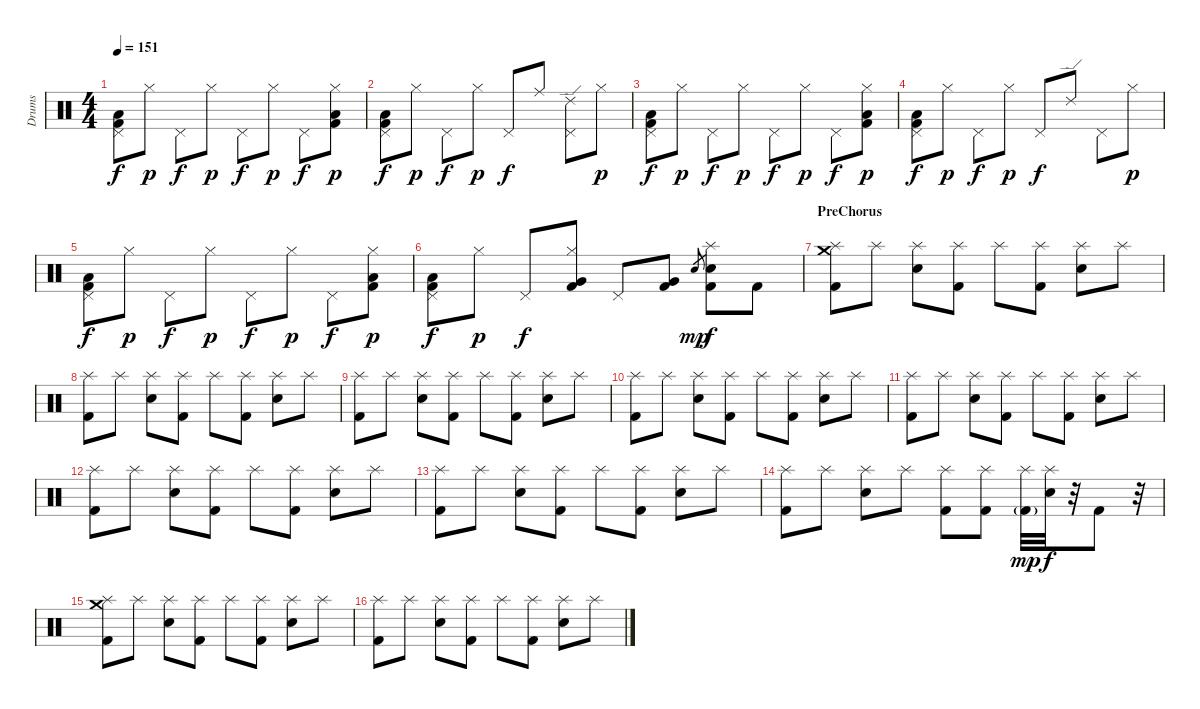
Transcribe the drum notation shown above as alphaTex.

\track ("Drums" "Drums") {instrument percussion}
\staff {score}
\articulation defaults
\ts (4 4)
\tempo 151
\clef neutral
\ks c
("Kick (hit) 2" "Low Floor Tom (hit)" "Pedal Hi-Hat (hit)").8{dy f volume 16} "Hi-Hat (closed)".8{dy p} "Pedal Hi-Hat (hit)".8{dy f} "Hi-Hat (closed)".8{dy p} "Pedal Hi-Hat (hit)".8{dy f} "Hi-Hat (closed)".8{dy p} "Pedal Hi-Hat (hit)".8{dy f} ("Kick (hit) 2" "Low Floor Tom (hit)" "Hi-Hat (closed)").8{dy p volume 16} |
("Kick (hit) 2" "Low Floor Tom (hit)" "Pedal Hi-Hat (hit)").8{dy f volume 16} "Hi-Hat (closed)".8{dy p} "Pedal Hi-Hat (hit)".8{dy f} "Hi-Hat (closed)".8{dy p} "Pedal Hi-Hat (hit)".8{dy f} "Ride (middle)".8 ("Ride (edge) 2" "Pedal Hi-Hat (hit)").8 "Hi-Hat (closed)".8{dy p} |
("Kick (hit) 2" "Low Floor Tom (hit)" "Pedal Hi-Hat (hit)").8{dy f volume 16} "Hi-Hat (closed)".8{dy p} "Pedal Hi-Hat (hit)".8{dy f} "Hi-Hat (closed)".8{dy p} "Pedal Hi-Hat (hit)".8{dy f} "Hi-Hat (closed)".8{dy p} "Pedal Hi-Hat (hit)".8{dy f} ("Kick (hit) 2" "Low Floor Tom (hit)" "Hi-Hat (closed)").8{dy p volume 16} |
("Kick (hit) 2" "Low Floor Tom (hit)" "Pedal Hi-Hat (hit)").8{dy f volume 16} "Hi-Hat (closed)".8{dy p} "Pedal Hi-Hat (hit)".8{dy f} "Hi-Hat (closed)".8{dy p} "Pedal Hi-Hat (hit)".8{dy f} "Ride (edge) 2".8 "Pedal Hi-Hat (hit)".8 "Hi-Hat (closed)".8{dy p} |
("Kick (hit) 2" "Low Floor Tom (hit)" "Pedal Hi-Hat (hit)").8{dy f volume 16} "Hi-Hat (closed)".8{dy p} "Pedal Hi-Hat (hit)".8{dy f} "Hi-Hat (closed)".8{dy p} "Pedal Hi-Hat (hit)".8{dy f} "Hi-Hat (closed)".8{dy p} "Pedal Hi-Hat (hit)".8{dy f} ("Kick (hit) 2" "Low Floor Tom (hit)" "Hi-Hat (closed)").8{dy p volume 16} |
("Kick (hit) 2" "Low Floor Tom (hit)" "Pedal Hi-Hat (hit)").8{dy f volume 16} "Hi-Hat (closed)".8{dy p} "Pedal Hi-Hat (hit)".8{dy f} ("Kick (hit) 2" "Very Low Tom (hit)" "Hi-Hat (closed)").8 "Pedal Hi-Hat (hit)".8 ("Kick (hit) 2" "Very Low Tom (hit)").8 "Electric Snare (hit)".8{gr dy mp} ("Kick (hit) 2" "Snare (hit) 2" "Splash (hit)").8{dy f} "Kick (hit) 2".8 |
\section ("" "PreChorus")
("Kick (hit) 2" "Splash (hit)" "Crash medium (hit)").8 "Splash (hit)".8 ("Splash (hit)" "Electric Snare (hit)").8 ("Kick (hit) 2" "Splash (hit)").8 "Splash (hit)".8 ("Kick (hit) 2" "Splash (hit)").8 ("Splash (hit)" "Electric Snare (hit)").8 "Splash (hit)".8 |
("Kick (hit) 2" "Splash (hit)").8 "Splash (hit)".8 ("Splash (hit)" "Electric Snare (hit)").8 ("Kick (hit) 2" "Splash (hit)").8 "Splash (hit)".8 ("Kick (hit) 2" "Splash (hit)").8 ("Splash (hit)" "Electric Snare (hit)").8 "Splash (hit)".8 |
("Kick (hit) 2" "Splash (hit)").8 "Splash (hit)".8 ("Splash (hit)" "Electric Snare (hit)").8 ("Kick (hit) 2" "Splash (hit)").8 "Splash (hit)".8 ("Kick (hit) 2" "Splash (hit)").8 ("Splash (hit)" "Electric Snare (hit)").8 "Splash (hit)".8 |
("Kick (hit) 2" "Splash (hit)").8 "Splash (hit)".8 ("Splash (hit)" "Electric Snare (hit)").8 ("Kick (hit) 2" "Splash (hit)").8 "Splash (hit)".8 ("Kick (hit) 2" "Splash (hit)").8 ("Splash (hit)" "Electric Snare (hit)").8 "Splash (hit)".8 |
("Kick (hit) 2" "Splash (hit)").8 "Splash (hit)".8 ("Splash (hit)" "Electric Snare (hit)").8 ("Kick (hit) 2" "Splash (hit)").8 "Splash (hit)".8 ("Kick (hit) 2" "Splash (hit)").8 ("Splash (hit)" "Electric Snare (hit)").8 "Splash (hit)".8 |
("Kick (hit) 2" "Splash (hit)").8 "Splash (hit)".8 ("Splash (hit)" "Electric Snare (hit)").8 ("Kick (hit) 2" "Splash (hit)").8 "Splash (hit)".8 ("Kick (hit) 2" "Splash (hit)").8 ("Splash (hit)" "Electric Snare (hit)").8 "Splash (hit)".8 |
("Kick (hit) 2" "Splash (hit)").8 "Splash (hit)".8 ("Splash (hit)" "Electric Snare (hit)").8 ("Kick (hit) 2" "Splash (hit)").8 "Splash (hit)".8 ("Kick (hit) 2" "Splash (hit)").8 ("Splash (hit)" "Electric Snare (hit)").8 "Splash (hit)".8 |
("Kick (hit) 2" "Splash (hit)").8 "Splash (hit)".8 ("Splash (hit)" "Electric Snare (hit)").8 "Splash (hit)".8 ("Kick (hit) 2" "Splash (hit)").8 ("Kick (hit) 2" "Splash (hit)").8 ("Splash (hit)" "Kick (hit) 2"{g}).32{dy mp} ("Splash (hit)" "Electric Snare (hit)").32{dy f} r.32 "Kick (hit) 2".8 r.32 |
("Kick (hit) 2" "Splash (hit)" "Crash medium (hit)").8 "Splash (hit)".8 ("Splash (hit)" "Electric Snare (hit)").8 ("Kick (hit) 2" "Splash (hit)").8 "Splash (hit)".8 ("Kick (hit) 2" "Splash (hit)").8 ("Splash (hit)" "Electric Snare (hit)").8 "Splash (hit)".8 |
("Kick (hit) 2" "Splash (hit)").8 "Splash (hit)".8 ("Splash (hit)" "Electric Snare (hit)").8 ("Kick (hit) 2" "Splash (hit)").8 "Splash (hit)".8 ("Kick (hit) 2" "Splash (hit)").8 ("Splash (hit)" "Electric Snare (hit)").8 "Splash (hit)".8
